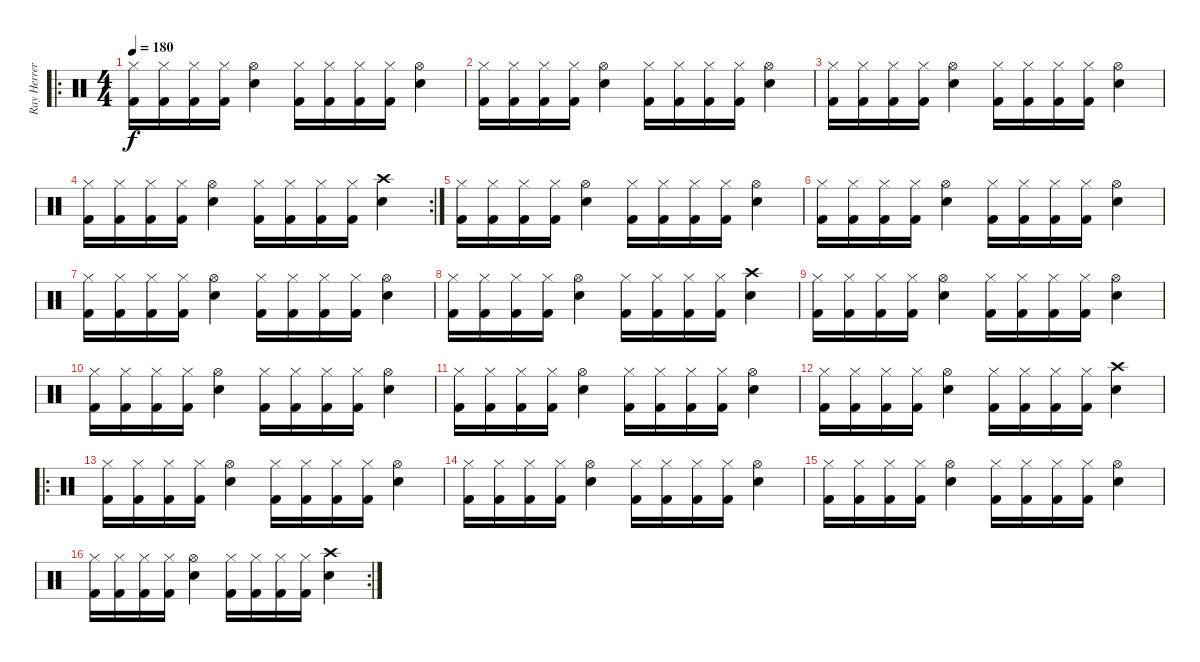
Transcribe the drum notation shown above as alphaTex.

\track ("Ray Herrera" "Ray Herrer") {instrument percussion}
\staff {score}
\articulation defaults
\ro
\ts (4 4)
\tempo 180
\clef neutral
\ks c
("Hi-Hat (closed)" "Kick (hit) 2").16{dy f} ("Hi-Hat (closed)" "Kick (hit) 2").16 ("Hi-Hat (closed)" "Kick (hit) 2").16 ("Hi-Hat (closed)" "Kick (hit) 2").16 ("Hi-Hat (open)" "Electric Snare (hit)").4 ("Hi-Hat (closed)" "Kick (hit) 2").16 ("Hi-Hat (closed)" "Kick (hit) 2").16 ("Hi-Hat (closed)" "Kick (hit) 2").16 ("Hi-Hat (closed)" "Kick (hit) 2").16 ("Hi-Hat (open)" "Electric Snare (hit)").4 |
("Hi-Hat (closed)" "Kick (hit) 2").16 ("Hi-Hat (closed)" "Kick (hit) 2").16 ("Hi-Hat (closed)" "Kick (hit) 2").16 ("Hi-Hat (closed)" "Kick (hit) 2").16 ("Hi-Hat (open)" "Electric Snare (hit)").4 ("Hi-Hat (closed)" "Kick (hit) 2").16 ("Hi-Hat (closed)" "Kick (hit) 2").16 ("Hi-Hat (closed)" "Kick (hit) 2").16 ("Hi-Hat (closed)" "Kick (hit) 2").16 ("Hi-Hat (open)" "Electric Snare (hit)").4 |
("Hi-Hat (closed)" "Kick (hit) 2").16 ("Hi-Hat (closed)" "Kick (hit) 2").16 ("Hi-Hat (closed)" "Kick (hit) 2").16 ("Hi-Hat (closed)" "Kick (hit) 2").16 ("Hi-Hat (open)" "Electric Snare (hit)").4 ("Hi-Hat (closed)" "Kick (hit) 2").16 ("Hi-Hat (closed)" "Kick (hit) 2").16 ("Hi-Hat (closed)" "Kick (hit) 2").16 ("Hi-Hat (closed)" "Kick (hit) 2").16 ("Hi-Hat (open)" "Electric Snare (hit)").4 |
\rc 2
("Hi-Hat (closed)" "Kick (hit) 2").16 ("Hi-Hat (closed)" "Kick (hit) 2").16 ("Hi-Hat (closed)" "Kick (hit) 2").16 ("Hi-Hat (closed)" "Kick (hit) 2").16 ("Hi-Hat (open)" "Electric Snare (hit)").4 ("Hi-Hat (closed)" "Kick (hit) 2").16 ("Hi-Hat (closed)" "Kick (hit) 2").16 ("Hi-Hat (closed)" "Kick (hit) 2").16 ("Hi-Hat (closed)" "Kick (hit) 2").16 ("Crash high (hit)" "Electric Snare (hit)").4 |
("Hi-Hat (closed)" "Kick (hit) 2").16 ("Hi-Hat (closed)" "Kick (hit) 2").16 ("Hi-Hat (closed)" "Kick (hit) 2").16 ("Hi-Hat (closed)" "Kick (hit) 2").16 ("Hi-Hat (open)" "Electric Snare (hit)").4 ("Hi-Hat (closed)" "Kick (hit) 2").16 ("Hi-Hat (closed)" "Kick (hit) 2").16 ("Hi-Hat (closed)" "Kick (hit) 2").16 ("Hi-Hat (closed)" "Kick (hit) 2").16 ("Hi-Hat (open)" "Electric Snare (hit)").4 |
("Hi-Hat (closed)" "Kick (hit) 2").16 ("Hi-Hat (closed)" "Kick (hit) 2").16 ("Hi-Hat (closed)" "Kick (hit) 2").16 ("Hi-Hat (closed)" "Kick (hit) 2").16 ("Hi-Hat (open)" "Electric Snare (hit)").4 ("Hi-Hat (closed)" "Kick (hit) 2").16 ("Hi-Hat (closed)" "Kick (hit) 2").16 ("Hi-Hat (closed)" "Kick (hit) 2").16 ("Hi-Hat (closed)" "Kick (hit) 2").16 ("Hi-Hat (open)" "Electric Snare (hit)").4 |
("Hi-Hat (closed)" "Kick (hit) 2").16 ("Hi-Hat (closed)" "Kick (hit) 2").16 ("Hi-Hat (closed)" "Kick (hit) 2").16 ("Hi-Hat (closed)" "Kick (hit) 2").16 ("Hi-Hat (open)" "Electric Snare (hit)").4 ("Hi-Hat (closed)" "Kick (hit) 2").16 ("Hi-Hat (closed)" "Kick (hit) 2").16 ("Hi-Hat (closed)" "Kick (hit) 2").16 ("Hi-Hat (closed)" "Kick (hit) 2").16 ("Hi-Hat (open)" "Electric Snare (hit)").4 |
("Hi-Hat (closed)" "Kick (hit) 2").16 ("Hi-Hat (closed)" "Kick (hit) 2").16 ("Hi-Hat (closed)" "Kick (hit) 2").16 ("Hi-Hat (closed)" "Kick (hit) 2").16 ("Hi-Hat (open)" "Electric Snare (hit)").4 ("Hi-Hat (closed)" "Kick (hit) 2").16 ("Hi-Hat (closed)" "Kick (hit) 2").16 ("Hi-Hat (closed)" "Kick (hit) 2").16 ("Hi-Hat (closed)" "Kick (hit) 2").16 ("Crash high (hit)" "Electric Snare (hit)").4 |
("Hi-Hat (closed)" "Kick (hit) 2").16 ("Hi-Hat (closed)" "Kick (hit) 2").16 ("Hi-Hat (closed)" "Kick (hit) 2").16 ("Hi-Hat (closed)" "Kick (hit) 2").16 ("Hi-Hat (open)" "Electric Snare (hit)").4 ("Hi-Hat (closed)" "Kick (hit) 2").16 ("Hi-Hat (closed)" "Kick (hit) 2").16 ("Hi-Hat (closed)" "Kick (hit) 2").16 ("Hi-Hat (closed)" "Kick (hit) 2").16 ("Hi-Hat (open)" "Electric Snare (hit)").4 |
("Hi-Hat (closed)" "Kick (hit) 2").16 ("Hi-Hat (closed)" "Kick (hit) 2").16 ("Hi-Hat (closed)" "Kick (hit) 2").16 ("Hi-Hat (closed)" "Kick (hit) 2").16 ("Hi-Hat (open)" "Electric Snare (hit)").4 ("Hi-Hat (closed)" "Kick (hit) 2").16 ("Hi-Hat (closed)" "Kick (hit) 2").16 ("Hi-Hat (closed)" "Kick (hit) 2").16 ("Hi-Hat (closed)" "Kick (hit) 2").16 ("Hi-Hat (open)" "Electric Snare (hit)").4 |
("Hi-Hat (closed)" "Kick (hit) 2").16 ("Hi-Hat (closed)" "Kick (hit) 2").16 ("Hi-Hat (closed)" "Kick (hit) 2").16 ("Hi-Hat (closed)" "Kick (hit) 2").16 ("Hi-Hat (open)" "Electric Snare (hit)").4 ("Hi-Hat (closed)" "Kick (hit) 2").16 ("Hi-Hat (closed)" "Kick (hit) 2").16 ("Hi-Hat (closed)" "Kick (hit) 2").16 ("Hi-Hat (closed)" "Kick (hit) 2").16 ("Hi-Hat (open)" "Electric Snare (hit)").4 |
("Hi-Hat (closed)" "Kick (hit) 2").16 ("Hi-Hat (closed)" "Kick (hit) 2").16 ("Hi-Hat (closed)" "Kick (hit) 2").16 ("Hi-Hat (closed)" "Kick (hit) 2").16 ("Hi-Hat (open)" "Electric Snare (hit)").4 ("Hi-Hat (closed)" "Kick (hit) 2").16 ("Hi-Hat (closed)" "Kick (hit) 2").16 ("Hi-Hat (closed)" "Kick (hit) 2").16 ("Hi-Hat (closed)" "Kick (hit) 2").16 ("Crash high (hit)" "Electric Snare (hit)").4 |
\ro
("Hi-Hat (closed)" "Kick (hit) 2").16 ("Hi-Hat (closed)" "Kick (hit) 2").16 ("Hi-Hat (closed)" "Kick (hit) 2").16 ("Hi-Hat (closed)" "Kick (hit) 2").16 ("Hi-Hat (open)" "Electric Snare (hit)").4 ("Hi-Hat (closed)" "Kick (hit) 2").16 ("Hi-Hat (closed)" "Kick (hit) 2").16 ("Hi-Hat (closed)" "Kick (hit) 2").16 ("Hi-Hat (closed)" "Kick (hit) 2").16 ("Hi-Hat (open)" "Electric Snare (hit)").4 |
("Hi-Hat (closed)" "Kick (hit) 2").16 ("Hi-Hat (closed)" "Kick (hit) 2").16 ("Hi-Hat (closed)" "Kick (hit) 2").16 ("Hi-Hat (closed)" "Kick (hit) 2").16 ("Hi-Hat (open)" "Electric Snare (hit)").4 ("Hi-Hat (closed)" "Kick (hit) 2").16 ("Hi-Hat (closed)" "Kick (hit) 2").16 ("Hi-Hat (closed)" "Kick (hit) 2").16 ("Hi-Hat (closed)" "Kick (hit) 2").16 ("Hi-Hat (open)" "Electric Snare (hit)").4 |
("Hi-Hat (closed)" "Kick (hit) 2").16 ("Hi-Hat (closed)" "Kick (hit) 2").16 ("Hi-Hat (closed)" "Kick (hit) 2").16 ("Hi-Hat (closed)" "Kick (hit) 2").16 ("Hi-Hat (open)" "Electric Snare (hit)").4 ("Hi-Hat (closed)" "Kick (hit) 2").16 ("Hi-Hat (closed)" "Kick (hit) 2").16 ("Hi-Hat (closed)" "Kick (hit) 2").16 ("Hi-Hat (closed)" "Kick (hit) 2").16 ("Hi-Hat (open)" "Electric Snare (hit)").4 |
\rc 2
("Hi-Hat (closed)" "Kick (hit) 2").16 ("Hi-Hat (closed)" "Kick (hit) 2").16 ("Hi-Hat (closed)" "Kick (hit) 2").16 ("Hi-Hat (closed)" "Kick (hit) 2").16 ("Hi-Hat (open)" "Electric Snare (hit)").4 ("Hi-Hat (closed)" "Kick (hit) 2").16 ("Hi-Hat (closed)" "Kick (hit) 2").16 ("Hi-Hat (closed)" "Kick (hit) 2").16 ("Hi-Hat (closed)" "Kick (hit) 2").16 ("Crash high (hit)" "Electric Snare (hit)").4
